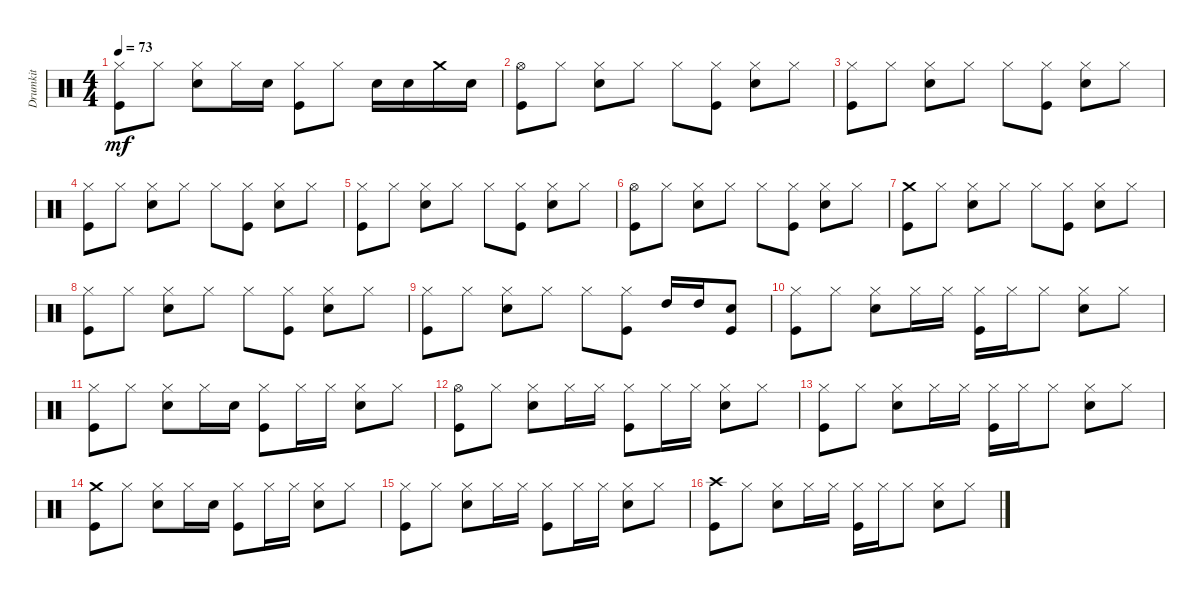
\track ("Drumkit" "Drumkit") {instrument percussion}
\staff {score}
\articulation defaults
\ts (4 4)
\tempo 73
\clef neutral
\ks c
("Hi-Hat (closed)" "Kick (hit)").8{dy mf} "Hi-Hat (closed)".8 ("Snare (hit) 2" "Hi-Hat (closed)").8 "Hi-Hat (closed)".16 "Snare (hit) 2".16 ("Kick (hit)" "Hi-Hat (closed)").8 "Hi-Hat (closed)".8 "Snare (hit) 2".16 "Snare (hit) 2".16 "Crash medium (hit)".16 "Snare (hit) 2".16 |
("Kick (hit)" "Hi-Hat (open)").8 "Hi-Hat (closed)".8 ("Snare (hit) 2" "Hi-Hat (closed)").8 "Hi-Hat (closed)".8 "Hi-Hat (closed)".8 ("Hi-Hat (closed)" "Kick (hit)").8 ("Hi-Hat (closed)" "Snare (hit) 2").8 "Hi-Hat (closed)".8 |
("Kick (hit)" "Hi-Hat (closed)").8 "Hi-Hat (closed)".8 ("Snare (hit) 2" "Hi-Hat (closed)").8 "Hi-Hat (closed)".8 "Hi-Hat (closed)".8 ("Hi-Hat (closed)" "Kick (hit)").8 ("Hi-Hat (closed)" "Snare (hit) 2").8 "Hi-Hat (closed)".8 |
("Kick (hit)" "Hi-Hat (closed)").8 "Hi-Hat (closed)".8 ("Snare (hit) 2" "Hi-Hat (closed)").8 "Hi-Hat (closed)".8 "Hi-Hat (closed)".8 ("Hi-Hat (closed)" "Kick (hit)").8 ("Hi-Hat (closed)" "Snare (hit) 2").8 "Hi-Hat (closed)".8 |
("Kick (hit)" "Hi-Hat (closed)").8 "Hi-Hat (closed)".8 ("Snare (hit) 2" "Hi-Hat (closed)").8 "Hi-Hat (closed)".8 "Hi-Hat (closed)".8 ("Hi-Hat (closed)" "Kick (hit)").8 ("Hi-Hat (closed)" "Snare (hit) 2").8 "Hi-Hat (closed)".8 |
("Kick (hit)" "Hi-Hat (open)").8 "Hi-Hat (closed)".8 ("Snare (hit) 2" "Hi-Hat (closed)").8 "Hi-Hat (closed)".8 "Hi-Hat (closed)".8 ("Hi-Hat (closed)" "Kick (hit)").8 ("Hi-Hat (closed)" "Snare (hit) 2").8 "Hi-Hat (closed)".8 |
("Kick (hit)" "Crash medium (hit)").8 "Hi-Hat (closed)".8 ("Snare (hit) 2" "Hi-Hat (closed)").8 "Hi-Hat (closed)".8 "Hi-Hat (closed)".8 ("Hi-Hat (closed)" "Kick (hit)").8 ("Hi-Hat (closed)" "Snare (hit) 2").8 "Hi-Hat (closed)".8 |
("Kick (hit)" "Hi-Hat (closed)").8 "Hi-Hat (closed)".8 ("Snare (hit) 2" "Hi-Hat (closed)").8 "Hi-Hat (closed)".8 "Hi-Hat (closed)".8 ("Hi-Hat (closed)" "Kick (hit)").8 ("Hi-Hat (closed)" "Snare (hit) 2").8 "Hi-Hat (closed)".8 |
("Kick (hit)" "Hi-Hat (closed)").8 "Hi-Hat (closed)".8 ("Snare (hit) 2" "Hi-Hat (closed)").8 "Hi-Hat (closed)".8 "Hi-Hat (closed)".8 ("Hi-Hat (closed)" "Kick (hit)").8 "High Tom (hit)".16 "High Tom (hit)".16 ("Snare (hit) 2" "Kick (hit)").8 |
("Hi-Hat (closed)" "Kick (hit)").8 "Hi-Hat (closed)".8 ("Snare (hit) 2" "Hi-Hat (closed)").8 "Hi-Hat (closed)".16 "Hi-Hat (closed)".16 ("Kick (hit)" "Hi-Hat (closed)").16 "Hi-Hat (closed)".16 "Hi-Hat (closed)".8 ("Hi-Hat (closed)" "Snare (hit) 2").8 "Hi-Hat (closed)".8 |
("Hi-Hat (closed)" "Kick (hit)").8 "Hi-Hat (closed)".8 ("Snare (hit) 2" "Hi-Hat (closed)").8 "Hi-Hat (closed)".16 "Snare (hit) 2".16 ("Kick (hit)" "Hi-Hat (closed)").8 "Hi-Hat (closed)".16 "Hi-Hat (closed)".16 ("Hi-Hat (closed)" "Snare (hit) 2").8 "Hi-Hat (closed)".8 |
("Kick (hit)" "Hi-Hat (open)").8 "Hi-Hat (closed)".8 ("Snare (hit) 2" "Hi-Hat (closed)").8 "Hi-Hat (closed)".16 "Hi-Hat (closed)".16 ("Hi-Hat (closed)" "Kick (hit)").8 "Hi-Hat (closed)".16 "Hi-Hat (closed)".16 ("Hi-Hat (closed)" "Snare (hit) 2").8 "Hi-Hat (closed)".8 |
("Hi-Hat (closed)" "Kick (hit)").8 "Hi-Hat (closed)".8 ("Snare (hit) 2" "Hi-Hat (closed)").8 "Hi-Hat (closed)".16 "Hi-Hat (closed)".16 ("Kick (hit)" "Hi-Hat (closed)").16 "Hi-Hat (closed)".16 "Hi-Hat (closed)".8 ("Hi-Hat (closed)" "Snare (hit) 2").8 "Hi-Hat (closed)".8 |
("Kick (hit)" "Crash medium (hit)").8 "Hi-Hat (closed)".8 ("Snare (hit) 2" "Hi-Hat (closed)").8 "Hi-Hat (closed)".16 "Snare (hit) 2".16 ("Kick (hit)" "Hi-Hat (closed)").8 "Hi-Hat (closed)".16 "Hi-Hat (closed)".16 ("Hi-Hat (closed)" "Snare (hit) 2").8 "Hi-Hat (closed)".8 |
("Hi-Hat (closed)" "Kick (hit)").8 "Hi-Hat (closed)".8 ("Snare (hit) 2" "Hi-Hat (closed)").8 "Hi-Hat (closed)".16 "Hi-Hat (closed)".16 ("Kick (hit)" "Hi-Hat (closed)").8 "Hi-Hat (closed)".16 "Hi-Hat (closed)".16 ("Hi-Hat (closed)" "Snare (hit) 2").8 "Hi-Hat (closed)".8 |
("Kick (hit)" "Crash high (hit)").8 "Hi-Hat (closed)".8 ("Snare (hit) 2" "Hi-Hat (closed)").8 "Hi-Hat (closed)".16 "Hi-Hat (closed)".16 ("Kick (hit)" "Hi-Hat (closed)").16 "Hi-Hat (closed)".16 "Hi-Hat (closed)".8 ("Hi-Hat (closed)" "Snare (hit) 2").8 "Hi-Hat (closed)".8
